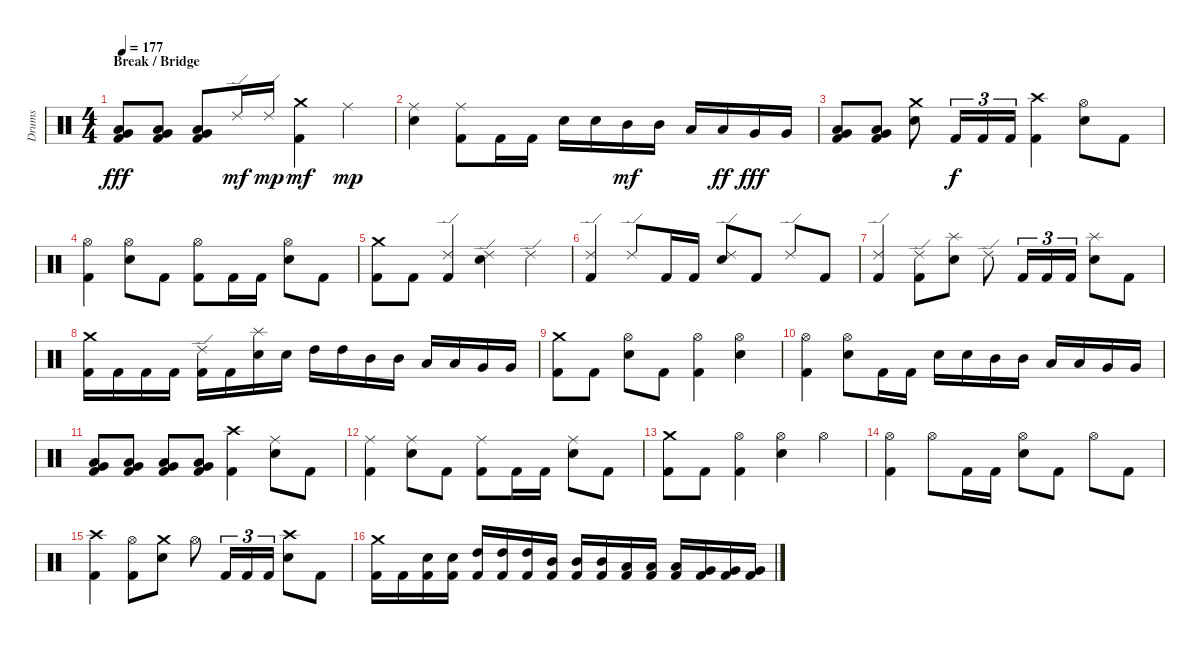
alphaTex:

\track ("Drums" "Drums") {instrument percussion}
\staff {score}
\articulation defaults
\ts (4 4)
\section ("" "Break / Bridge")
\tempo 177
\clef neutral
\ks c
("Kick (hit) 2" "Low Tom (hit)" "Very Low Tom (hit)").8{dy fff} ("Kick (hit) 2" "Low Tom (hit)" "Very Low Tom (hit)").8 ("Kick (hit) 2" "Low Tom (hit)" "Very Low Tom (hit)").8 "Ride (edge) 2".16{dy mf} "Ride (edge) 2".16{dy mp} ("Kick (hit) 2" "Crash medium (hit)").4{dy mf} "Ride (middle)".4{dy mp} |
("Electric Snare (hit)" "Ride (middle)").4 ("Kick (hit) 2" "Ride (middle)").8 "Kick (hit) 2".16 "Kick (hit) 2".16 "Electric Snare (hit)".16 "Electric Snare (hit)".16 "Mid Tom (hit)".16{dy mf} "Mid Tom (hit)".16 "Low Tom (hit)".16 "Low Tom (hit)".16{dy ff} "Very Low Tom (hit)".16{dy fff} "Very Low Tom (hit)".16 |
("Kick (hit) 2" "Low Tom (hit)" "Very Low Tom (hit)").8 ("Kick (hit) 2" "Low Tom (hit)" "Very Low Tom (hit)").8 ("Electric Snare (hit)" "Crash medium (hit)").8 "Kick (hit) 2".16{tu (3 2) dy f} "Kick (hit) 2".16{tu (3 2)} "Kick (hit) 2".16{tu (3 2)} ("Kick (hit) 2" "Crash high (hit)").4 ("Electric Snare (hit)" "Hi-Hat (open)").8 "Kick (hit) 2".8 |
("Kick (hit) 2" "Hi-Hat (open)").4 ("Electric Snare (hit)" "Hi-Hat (open)").8 "Kick (hit) 2".8 ("Kick (hit) 2" "Hi-Hat (open)").8 "Kick (hit) 2".16 "Kick (hit) 2".16 ("Electric Snare (hit)" "Hi-Hat (open)").8 "Kick (hit) 2".8 |
("Kick (hit) 2" "Crash medium (hit)").8 "Kick (hit) 2".8 ("Kick (hit) 2" "Ride (edge) 2").4 ("Electric Snare (hit)" "Ride (edge) 2").4 "Ride (edge) 2".4 |
("Kick (hit) 2" "Ride (edge) 2").4 "Ride (edge) 2".8 "Kick (hit) 2".16 "Kick (hit) 2".16 ("Electric Snare (hit)" "Ride (edge) 2").8 "Kick (hit) 2".8 "Ride (edge) 2".8 "Kick (hit) 2".8 |
("Kick (hit) 2" "Ride (edge) 2").4 ("Kick (hit) 2" "Ride (edge) 2").8 ("Electric Snare (hit)" "Splash (hit)").8 "Ride (edge) 2".8 "Kick (hit) 2".16{tu (3 2)} "Kick (hit) 2".16{tu (3 2)} "Kick (hit) 2".16{tu (3 2)} ("Electric Snare (hit)" "Splash (hit)").8 "Kick (hit) 2".8 |
("Kick (hit) 2" "Crash medium (hit)").16 "Kick (hit) 2".16 "Kick (hit) 2".16 "Kick (hit) 2".16 ("Kick (hit) 2" "Ride (edge) 2").16 "Kick (hit) 2".16 ("Electric Snare (hit)" "Splash (hit)").16 "Electric Snare (hit)".16 "High Tom (hit)".16 "High Tom (hit)".16 "Mid Tom (hit)".16 "Mid Tom (hit)".16 "Low Tom (hit)".16 "Low Tom (hit)".16 "Very Low Tom (hit)".16 "Very Low Tom (hit)".16 |
("Kick (hit) 2" "Crash medium (hit)").8 "Kick (hit) 2".8 ("Electric Snare (hit)" "Hi-Hat (open)").8 "Kick (hit) 2".8 ("Kick (hit) 2" "Hi-Hat (open)").4 ("Electric Snare (hit)" "Hi-Hat (open)").4 |
("Kick (hit) 2" "Hi-Hat (open)").4 ("Electric Snare (hit)" "Hi-Hat (open)").8 "Kick (hit) 2".16 "Kick (hit) 2".16 "Electric Snare (hit)".16 "Electric Snare (hit)".16 "Mid Tom (hit)".16 "Mid Tom (hit)".16 "Low Tom (hit)".16 "Low Tom (hit)".16 "Very Low Tom (hit)".16 "Very Low Tom (hit)".16 |
("Kick (hit) 2" "Low Tom (hit)" "Very Low Tom (hit)").8 ("Kick (hit) 2" "Low Tom (hit)" "Very Low Tom (hit)").8 ("Kick (hit) 2" "Low Tom (hit)" "Very Low Tom (hit)").8 ("Kick (hit) 2" "Low Tom (hit)" "Very Low Tom (hit)").8 ("Kick (hit) 2" "Crash high (hit)").4 ("Electric Snare (hit)" "Ride (middle)").8 "Kick (hit) 2".8 |
("Kick (hit) 2" "Ride (middle)").4 ("Electric Snare (hit)" "Ride (middle)").8 "Kick (hit) 2".8 ("Kick (hit) 2" "Ride (middle)").8 "Kick (hit) 2".16 "Kick (hit) 2".16 ("Electric Snare (hit)" "Ride (middle)").8 "Kick (hit) 2".8 |
("Kick (hit) 2" "Crash medium (hit)").8 "Kick (hit) 2".8 ("Kick (hit) 2" "Hi-Hat (open)").4 ("Electric Snare (hit)" "Hi-Hat (open)").4 "Hi-Hat (open)".4 |
("Kick (hit) 2" "Hi-Hat (open)").4 "Hi-Hat (open)".8 "Kick (hit) 2".16 "Kick (hit) 2".16 ("Electric Snare (hit)" "Hi-Hat (open)").8 "Kick (hit) 2".8 "Hi-Hat (open)".8 "Kick (hit) 2".8 |
("Kick (hit) 2" "Crash high (hit)").4 ("Kick (hit) 2" "Hi-Hat (open)").8 ("Electric Snare (hit)" "Crash medium (hit)").8 "Hi-Hat (open)".8 "Kick (hit) 2".16{tu (3 2)} "Kick (hit) 2".16{tu (3 2)} "Kick (hit) 2".16{tu (3 2)} ("Electric Snare (hit)" "Crash high (hit)").8 "Kick (hit) 2".8 |
("Kick (hit) 2" "Crash medium (hit)").16 "Kick (hit) 2".16 ("Kick (hit) 2" "Electric Snare (hit)").16 ("Kick (hit) 2" "Electric Snare (hit)").16 ("Kick (hit) 2" "High Tom (hit)").16 ("Kick (hit) 2" "High Tom (hit)").16 ("Kick (hit) 2" "High Tom (hit)").16 ("Kick (hit) 2" "Mid Tom (hit)").16 ("Kick (hit) 2" "Mid Tom (hit)").16 ("Kick (hit) 2" "Mid Tom (hit)").16 ("Kick (hit) 2" "Low Tom (hit)").16 ("Kick (hit) 2" "Low Tom (hit)").16 ("Kick (hit) 2" "Low Tom (hit)").16 ("Kick (hit) 2" "Very Low Tom (hit)").16 ("Kick (hit) 2" "Very Low Tom (hit)").16 ("Kick (hit) 2" "Very Low Tom (hit)").16
